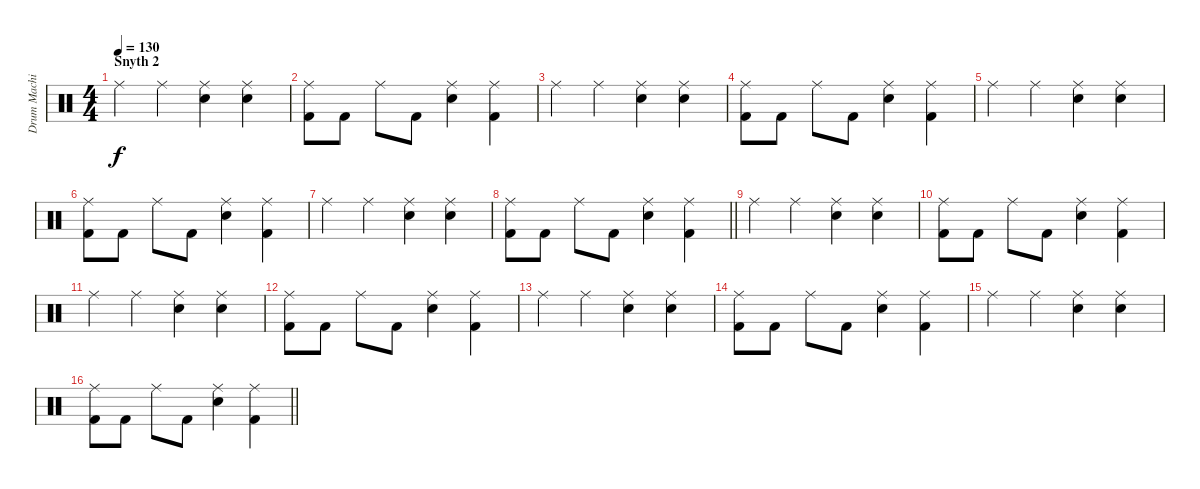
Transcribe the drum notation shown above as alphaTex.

\track ("Drum Machine" "Drum Machi") {instrument percussion}
\staff {score}
\articulation defaults
\ts (4 4)
\section ("" "Snyth 2")
\tempo 130
\clef neutral
\ks c "Ride (middle)".4{dy f} "Ride (middle)".4
("Electric Snare (hit)" "Ride (middle)").4 ("Electric Snare (hit)" "Ride (middle)").4 |
("Kick (hit) 2" "Ride (middle)").8 "Kick (hit) 2".8 "Ride (middle)".8 "Kick (hit) 2".8 ("Electric Snare (hit)" "Ride (middle)").4 ("Kick (hit) 2" "Ride (middle)").4 |
"Ride (middle)".4 "Ride (middle)".4 ("Electric Snare (hit)" "Ride (middle)").4 ("Electric Snare (hit)" "Ride (middle)").4 |
("Kick (hit) 2" "Ride (middle)").8 "Kick (hit) 2".8 "Ride (middle)".8 "Kick (hit) 2".8 ("Electric Snare (hit)" "Ride (middle)").4 ("Kick (hit) 2" "Ride (middle)").4 |
"Ride (middle)".4 "Ride (middle)".4 ("Electric Snare (hit)" "Ride (middle)").4 ("Electric Snare (hit)" "Ride (middle)").4 |
("Kick (hit) 2" "Ride (middle)").8 "Kick (hit) 2".8 "Ride (middle)".8 "Kick (hit) 2".8 ("Electric Snare (hit)" "Ride (middle)").4 ("Kick (hit) 2" "Ride (middle)").4 |
"Ride (middle)".4 "Ride (middle)".4 ("Electric Snare (hit)" "Ride (middle)").4 ("Electric Snare (hit)" "Ride (middle)").4 |
\barLineRight lightlight
("Kick (hit) 2" "Ride (middle)").8 "Kick (hit) 2".8 "Ride (middle)".8 "Kick (hit) 2".8 ("Electric Snare (hit)" "Ride (middle)").4 ("Kick (hit) 2" "Ride (middle)").4 |
"Ride (middle)".4 "Ride (middle)".4 ("Electric Snare (hit)" "Ride (middle)").4 ("Electric Snare (hit)" "Ride (middle)").4 |
("Kick (hit) 2" "Ride (middle)").8 "Kick (hit) 2".8 "Ride (middle)".8 "Kick (hit) 2".8 ("Electric Snare (hit)" "Ride (middle)").4 ("Kick (hit) 2" "Ride (middle)").4 |
"Ride (middle)".4 "Ride (middle)".4 ("Electric Snare (hit)" "Ride (middle)").4 ("Electric Snare (hit)" "Ride (middle)").4 |
("Kick (hit) 2" "Ride (middle)").8 "Kick (hit) 2".8 "Ride (middle)".8 "Kick (hit) 2".8 ("Electric Snare (hit)" "Ride (middle)").4 ("Kick (hit) 2" "Ride (middle)").4 |
"Ride (middle)".4 "Ride (middle)".4 ("Electric Snare (hit)" "Ride (middle)").4 ("Electric Snare (hit)" "Ride (middle)").4 |
("Kick (hit) 2" "Ride (middle)").8 "Kick (hit) 2".8 "Ride (middle)".8 "Kick (hit) 2".8 ("Electric Snare (hit)" "Ride (middle)").4 ("Kick (hit) 2" "Ride (middle)").4 |
"Ride (middle)".4 "Ride (middle)".4 ("Electric Snare (hit)" "Ride (middle)").4 ("Electric Snare (hit)" "Ride (middle)").4 |
\barLineRight lightlight
("Kick (hit) 2" "Ride (middle)").8 "Kick (hit) 2".8 "Ride (middle)".8 "Kick (hit) 2".8 ("Electric Snare (hit)" "Ride (middle)").4 ("Kick (hit) 2" "Ride (middle)").4
